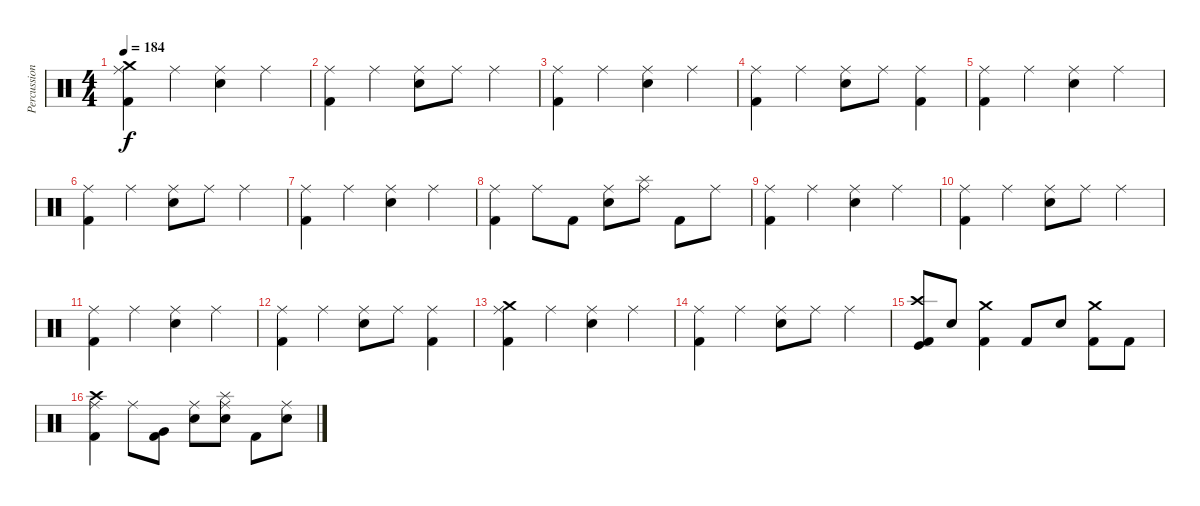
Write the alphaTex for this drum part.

\track ("Percussion" "Percussion") {instrument percussion}
\staff {score}
\articulation defaults
\ts (4 4)
\tempo 184
\clef neutral
\ks c
("Kick (hit) 2" "Crash medium (hit)" "Ride (middle)").4{dy f} "Ride (middle)".4 ("Snare (hit) 2" "Ride (middle)").4 "Ride (middle)".4 |
("Kick (hit) 2" "Ride (middle)").4 "Ride (middle)".4 ("Snare (hit) 2" "Ride (middle)").8 "Ride (middle)".8 "Ride (middle)".4 |
("Kick (hit) 2" "Ride (middle)").4 "Ride (middle)".4 ("Snare (hit) 2" "Ride (middle)").4 "Ride (middle)".4 |
("Kick (hit) 2" "Ride (middle)").4 "Ride (middle)".4 ("Snare (hit) 2" "Ride (middle)").8 "Ride (middle)".8 ("Kick (hit) 2" "Ride (middle)").4 |
("Kick (hit) 2" "Ride (middle)").4 "Ride (middle)".4 ("Snare (hit) 2" "Ride (middle)").4 "Ride (middle)".4 |
("Kick (hit) 2" "Ride (middle)").4 "Ride (middle)".4 ("Snare (hit) 2" "Ride (middle)").8 "Ride (middle)".8 "Ride (middle)".4 |
("Kick (hit) 2" "Ride (middle)").4 "Ride (middle)".4 ("Snare (hit) 2" "Ride (middle)").4 "Ride (middle)".4 |
("Kick (hit) 2" "Ride (middle)").4 "Ride (middle)".8 "Kick (hit) 2".8 ("Snare (hit) 2" "Ride (middle)").8 ("Splash (hit)" "Ride (middle)").8 "Kick (hit) 2".8 "Ride (middle)".8 |
("Kick (hit) 2" "Ride (middle)").4 "Ride (middle)".4 ("Snare (hit) 2" "Ride (middle)").4 "Ride (middle)".4 |
("Kick (hit) 2" "Ride (middle)").4 "Ride (middle)".4 ("Snare (hit) 2" "Ride (middle)").8 "Ride (middle)".8 "Ride (middle)".4 |
("Kick (hit) 2" "Ride (middle)").4 "Ride (middle)".4 ("Snare (hit) 2" "Ride (middle)").4 "Ride (middle)".4 |
("Kick (hit) 2" "Ride (middle)").4 "Ride (middle)".4 ("Snare (hit) 2" "Ride (middle)").8 "Ride (middle)".8 ("Kick (hit) 2" "Ride (middle)").4 |
("Kick (hit) 2" "Crash medium (hit)" "Ride (middle)").4 "Ride (middle)".4 ("Snare (hit) 2" "Ride (middle)").4 "Ride (middle)".4 |
("Kick (hit) 2" "Ride (middle)").4 "Ride (middle)".4 ("Snare (hit) 2" "Ride (middle)").8 "Ride (middle)".8 "Ride (middle)".4 |
("Kick (hit) 2" "Crash high (hit)" "Kick (hit)").8 "Snare (hit) 2".8 ("Kick (hit) 2" "Crash medium (hit)").4 "Kick (hit) 2".8 "Snare (hit) 2".8 ("Kick (hit) 2" "Crash medium (hit)").8 "Kick (hit) 2".8 |
("Kick (hit) 2" "Ride (middle)" "Crash high (hit)").4 "Ride (middle)".8 ("Kick (hit) 2" "Very Low Tom (hit)").8 ("Snare (hit) 2" "Ride (middle)").8 ("Snare (hit) 2" "Ride (middle)" "Splash (hit)").8 "Kick (hit) 2".8 ("Snare (hit) 2" "Ride (middle)").8
